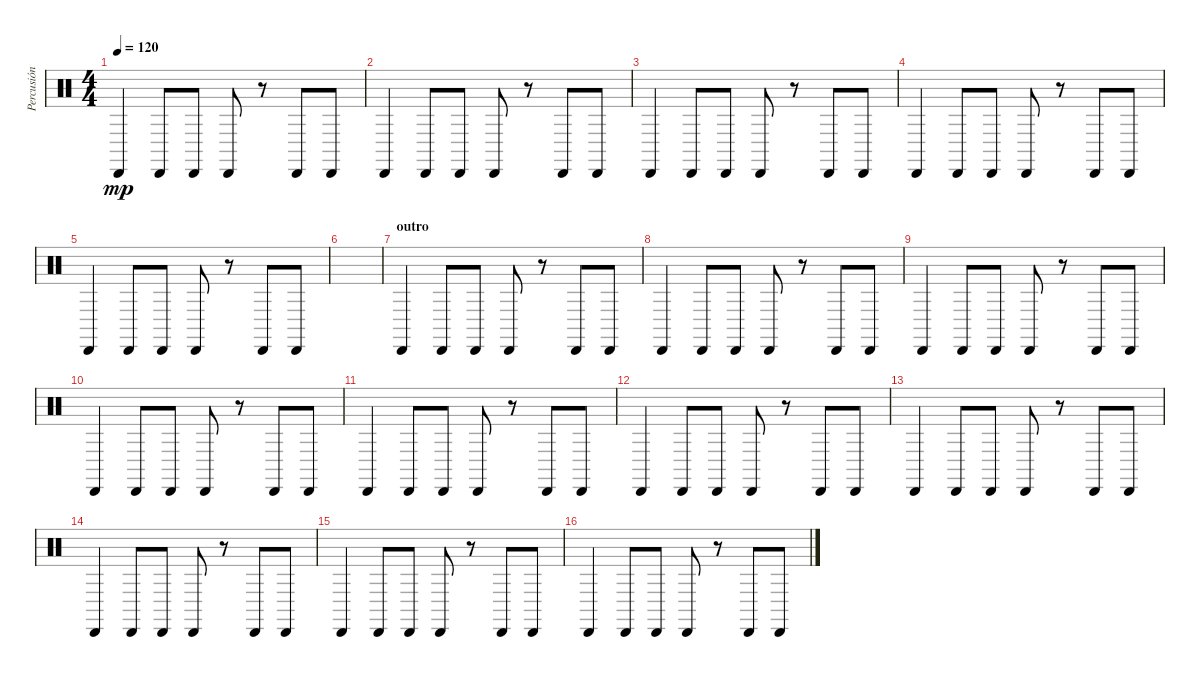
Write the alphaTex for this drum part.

\track ("Percusión" "Percusión") {instrument percussion}
\staff {score}
\articulation defaults
\ts (4 4)
\tempo 120
\clef neutral
\ks c "Cabasa (hit)".4{dy mp} "Cabasa (hit)".8 "Cabasa (hit)".8 "Cabasa (hit)".8
r.8 "Cabasa (hit)".8 "Cabasa (hit)".8 |
"Cabasa (hit)".4 "Cabasa (hit)".8 "Cabasa (hit)".8 "Cabasa (hit)".8 r.8 "Cabasa (hit)".8 "Cabasa (hit)".8 |
"Cabasa (hit)".4 "Cabasa (hit)".8 "Cabasa (hit)".8 "Cabasa (hit)".8 r.8 "Cabasa (hit)".8 "Cabasa (hit)".8 |
"Cabasa (hit)".4 "Cabasa (hit)".8 "Cabasa (hit)".8 "Cabasa (hit)".8 r.8 "Cabasa (hit)".8 "Cabasa (hit)".8 |
"Cabasa (hit)".4 "Cabasa (hit)".8 "Cabasa (hit)".8 "Cabasa (hit)".8 r.8 "Cabasa (hit)".8 "Cabasa (hit)".8 |
|
\section ("" "outro")
"Cabasa (hit)".4 "Cabasa (hit)".8 "Cabasa (hit)".8 "Cabasa (hit)".8 r.8 "Cabasa (hit)".8 "Cabasa (hit)".8 |
"Cabasa (hit)".4 "Cabasa (hit)".8 "Cabasa (hit)".8 "Cabasa (hit)".8 r.8 "Cabasa (hit)".8 "Cabasa (hit)".8 |
"Cabasa (hit)".4 "Cabasa (hit)".8 "Cabasa (hit)".8 "Cabasa (hit)".8 r.8 "Cabasa (hit)".8 "Cabasa (hit)".8 |
"Cabasa (hit)".4 "Cabasa (hit)".8 "Cabasa (hit)".8 "Cabasa (hit)".8 r.8 "Cabasa (hit)".8 "Cabasa (hit)".8 |
"Cabasa (hit)".4 "Cabasa (hit)".8 "Cabasa (hit)".8 "Cabasa (hit)".8 r.8 "Cabasa (hit)".8 "Cabasa (hit)".8 |
"Cabasa (hit)".4 "Cabasa (hit)".8 "Cabasa (hit)".8 "Cabasa (hit)".8 r.8 "Cabasa (hit)".8 "Cabasa (hit)".8 |
"Cabasa (hit)".4 "Cabasa (hit)".8 "Cabasa (hit)".8 "Cabasa (hit)".8 r.8 "Cabasa (hit)".8 "Cabasa (hit)".8 |
"Cabasa (hit)".4 "Cabasa (hit)".8 "Cabasa (hit)".8 "Cabasa (hit)".8 r.8 "Cabasa (hit)".8 "Cabasa (hit)".8 |
"Cabasa (hit)".4 "Cabasa (hit)".8 "Cabasa (hit)".8 "Cabasa (hit)".8 r.8 "Cabasa (hit)".8 "Cabasa (hit)".8 |
"Cabasa (hit)".4 "Cabasa (hit)".8 "Cabasa (hit)".8 "Cabasa (hit)".8 r.8 "Cabasa (hit)".8 "Cabasa (hit)".8
